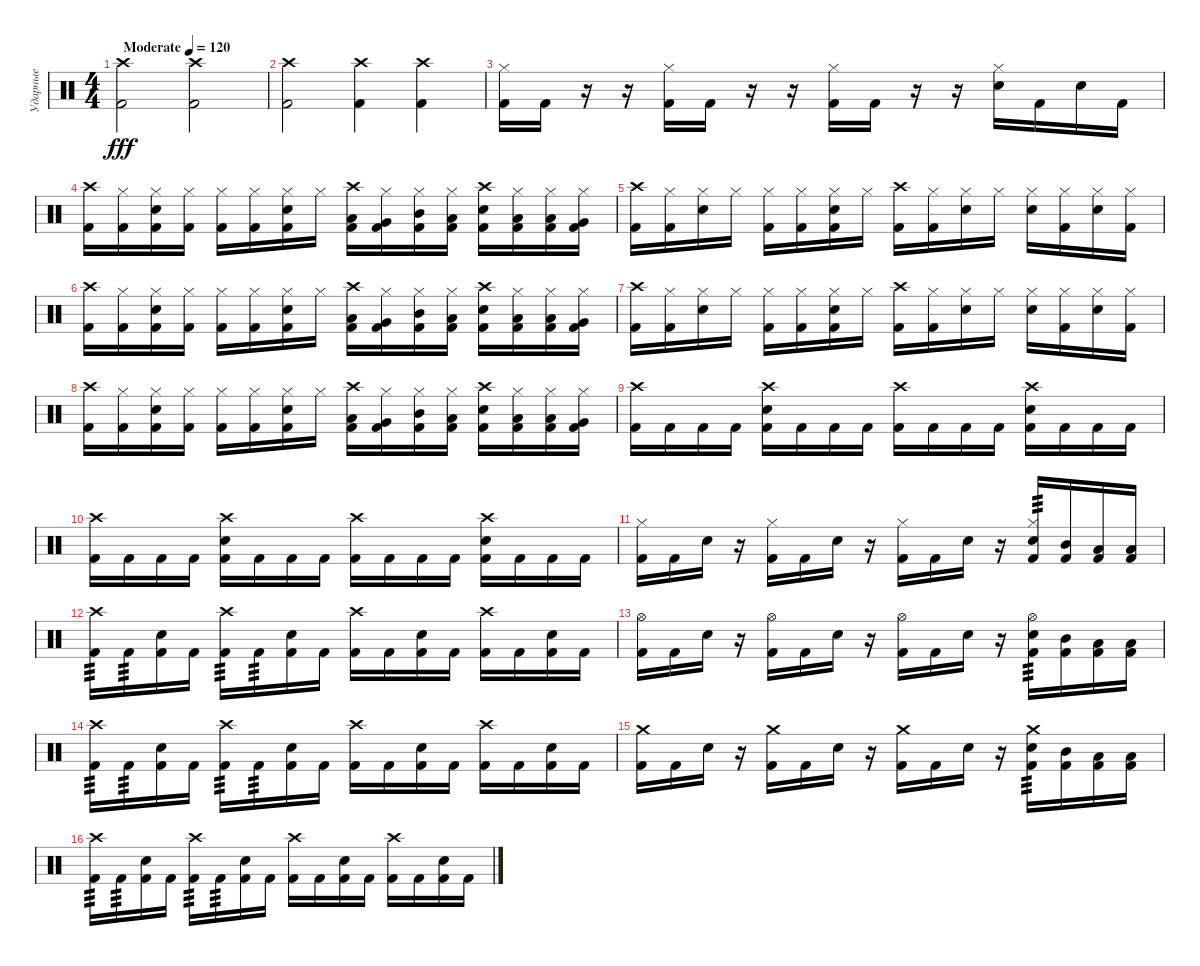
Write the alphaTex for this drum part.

\track ("Ударные" "Ударные") {instrument percussion}
\staff {score}
\articulation defaults
\ts (4 4)
\tempo (120 "Moderate")
\clef neutral
\ks c
("Crash high (hit)" "Kick (hit) 2").2{dy fff} ("Crash high (hit)" "Kick (hit) 2").2 |
("Crash high (hit)" "Kick (hit) 2").2 ("Crash high (hit)" "Kick (hit) 2").4 ("Crash high (hit)" "Kick (hit) 2").4 |
("Hi-Hat (closed)" "Kick (hit) 2").16 "Kick (hit) 2".16 r.16 r.16 ("Hi-Hat (closed)" "Kick (hit) 2").16 "Kick (hit) 2".16 r.16 r.16 ("Hi-Hat (closed)" "Kick (hit) 2").16 "Kick (hit) 2".16 r.16 r.16 ("Hi-Hat (closed)" "Snare (hit) 2").16 "Kick (hit) 2".16 "Snare (hit) 2".16 "Kick (hit) 2".16 |
("Crash high (hit)" "Kick (hit) 2").16 ("Hi-Hat (closed)" "Kick (hit) 2").16 ("Hi-Hat (closed)" "Snare (hit) 2" "Kick (hit) 2").16 ("Hi-Hat (closed)" "Kick (hit) 2").16 ("Hi-Hat (closed)" "Kick (hit) 2").16 ("Hi-Hat (closed)" "Kick (hit) 2").16 ("Hi-Hat (closed)" "Snare (hit) 2" "Kick (hit) 2").16 "Hi-Hat (closed)".16 ("Crash high (hit)" "Low Tom (hit)" "Kick (hit) 2").16 ("Hi-Hat (closed)" "Very Low Tom (hit)" "Kick (hit) 2").16 ("Hi-Hat (closed)" "Mid Tom (hit)" "Kick (hit) 2").16 ("Hi-Hat (closed)" "Low Floor Tom (hit)" "Kick (hit) 2").16 ("Crash high (hit)" "Snare (hit) 2" "Kick (hit) 2").16 ("Hi-Hat (closed)" "Low Tom (hit)" "Kick (hit) 2").16 ("Hi-Hat (closed)" "Low Floor Tom (hit)" "Kick (hit) 2").16 ("Hi-Hat (closed)" "Very Low Tom (hit)" "Kick (hit) 2").16 |
("Crash high (hit)" "Kick (hit) 2").16 ("Hi-Hat (closed)" "Kick (hit) 2").16 ("Hi-Hat (closed)" "Snare (hit) 2").16 "Hi-Hat (closed)".16 ("Hi-Hat (closed)" "Kick (hit) 2").16 ("Hi-Hat (closed)" "Kick (hit) 2").16 ("Hi-Hat (closed)" "Snare (hit) 2" "Kick (hit) 2").16 "Hi-Hat (closed)".16 ("Crash high (hit)" "Kick (hit) 2").16 ("Hi-Hat (closed)" "Kick (hit) 2").16 ("Hi-Hat (closed)" "Snare (hit) 2").16 "Hi-Hat (closed)".16 ("Hi-Hat (closed)" "Snare (hit) 2").16 ("Hi-Hat (closed)" "Kick (hit) 2").16 ("Hi-Hat (closed)" "Snare (hit) 2").16 ("Hi-Hat (closed)" "Kick (hit) 2").16 |
("Crash high (hit)" "Kick (hit) 2").16 ("Hi-Hat (closed)" "Kick (hit) 2").16 ("Hi-Hat (closed)" "Snare (hit) 2" "Kick (hit) 2").16 ("Hi-Hat (closed)" "Kick (hit) 2").16 ("Hi-Hat (closed)" "Kick (hit) 2").16 ("Hi-Hat (closed)" "Kick (hit) 2").16 ("Hi-Hat (closed)" "Snare (hit) 2" "Kick (hit) 2").16 "Hi-Hat (closed)".16 ("Crash high (hit)" "Low Tom (hit)" "Kick (hit) 2").16 ("Hi-Hat (closed)" "Very Low Tom (hit)" "Kick (hit) 2").16 ("Hi-Hat (closed)" "Mid Tom (hit)" "Kick (hit) 2").16 ("Hi-Hat (closed)" "Low Floor Tom (hit)" "Kick (hit) 2").16 ("Crash high (hit)" "Snare (hit) 2" "Kick (hit) 2").16 ("Hi-Hat (closed)" "Low Tom (hit)" "Kick (hit) 2").16 ("Hi-Hat (closed)" "Low Floor Tom (hit)" "Kick (hit) 2").16 ("Hi-Hat (closed)" "Very Low Tom (hit)" "Kick (hit) 2").16 |
("Crash high (hit)" "Kick (hit) 2").16 ("Hi-Hat (closed)" "Kick (hit) 2").16 ("Hi-Hat (closed)" "Snare (hit) 2").16 "Hi-Hat (closed)".16 ("Hi-Hat (closed)" "Kick (hit) 2").16 ("Hi-Hat (closed)" "Kick (hit) 2").16 ("Hi-Hat (closed)" "Snare (hit) 2" "Kick (hit) 2").16 "Hi-Hat (closed)".16 ("Crash high (hit)" "Kick (hit) 2").16 ("Hi-Hat (closed)" "Kick (hit) 2").16 ("Hi-Hat (closed)" "Snare (hit) 2").16 "Hi-Hat (closed)".16 ("Hi-Hat (closed)" "Snare (hit) 2").16 ("Hi-Hat (closed)" "Kick (hit) 2").16 ("Hi-Hat (closed)" "Snare (hit) 2").16 ("Hi-Hat (closed)" "Kick (hit) 2").16 |
("Crash high (hit)" "Kick (hit) 2").16 ("Hi-Hat (closed)" "Kick (hit) 2").16 ("Hi-Hat (closed)" "Snare (hit) 2" "Kick (hit) 2").16 ("Hi-Hat (closed)" "Kick (hit) 2").16 ("Hi-Hat (closed)" "Kick (hit) 2").16 ("Hi-Hat (closed)" "Kick (hit) 2").16 ("Hi-Hat (closed)" "Snare (hit) 2" "Kick (hit) 2").16 "Hi-Hat (closed)".16 ("Crash high (hit)" "Low Tom (hit)" "Kick (hit) 2").16 ("Hi-Hat (closed)" "Very Low Tom (hit)" "Kick (hit) 2").16 ("Hi-Hat (closed)" "Mid Tom (hit)" "Kick (hit) 2").16 ("Hi-Hat (closed)" "Low Floor Tom (hit)" "Kick (hit) 2").16 ("Crash high (hit)" "Snare (hit) 2" "Kick (hit) 2").16 ("Hi-Hat (closed)" "Low Tom (hit)" "Kick (hit) 2").16 ("Hi-Hat (closed)" "Low Floor Tom (hit)" "Kick (hit) 2").16 ("Hi-Hat (closed)" "Very Low Tom (hit)" "Kick (hit) 2").16 |
("Crash high (hit)" "Kick (hit) 2").16 "Kick (hit) 2".16 "Kick (hit) 2".16 "Kick (hit) 2".16 ("Crash high (hit)" "Snare (hit) 2" "Kick (hit) 2").16 "Kick (hit) 2".16 "Kick (hit) 2".16 "Kick (hit) 2".16 ("Crash high (hit)" "Kick (hit) 2").16 "Kick (hit) 2".16 "Kick (hit) 2".16 "Kick (hit) 2".16 ("Crash high (hit)" "Snare (hit) 2" "Kick (hit) 2").16 "Kick (hit) 2".16 "Kick (hit) 2".16 "Kick (hit) 2".16 |
("Crash high (hit)" "Kick (hit) 2").16 "Kick (hit) 2".16 "Kick (hit) 2".16 "Kick (hit) 2".16 ("Crash high (hit)" "Snare (hit) 2" "Kick (hit) 2").16 "Kick (hit) 2".16 "Kick (hit) 2".16 "Kick (hit) 2".16 ("Crash high (hit)" "Kick (hit) 2").16 "Kick (hit) 2".16 "Kick (hit) 2".16 "Kick (hit) 2".16 ("Crash high (hit)" "Snare (hit) 2" "Kick (hit) 2").16 "Kick (hit) 2".16 "Kick (hit) 2".16 "Kick (hit) 2".16 |
("Hi-Hat (closed)" "Kick (hit) 2").16 "Kick (hit) 2".16 "Snare (hit) 2".16 r.16 ("Hi-Hat (closed)" "Kick (hit) 2").16 "Kick (hit) 2".16 "Snare (hit) 2".16 r.16 ("Hi-Hat (closed)" "Kick (hit) 2").16 "Kick (hit) 2".16 "Snare (hit) 2".16 r.16 ("Hi-Hat (closed)" "Snare (hit) 2" "Kick (hit) 2").16{tp 3} ("Mid Tom (hit)" "Kick (hit) 2").16 ("Low Tom (hit)" "Kick (hit) 2").16 ("Low Floor Tom (hit)" "Kick (hit) 2").16 |
("Crash high (hit)" "Kick (hit) 2").16{tp 3} "Kick (hit) 2".16{tp 3} ("Snare (hit) 2" "Kick (hit) 2").16 "Kick (hit) 2".16 ("Crash high (hit)" "Kick (hit) 2").16{tp 3} "Kick (hit) 2".16{tp 3} ("Snare (hit) 2" "Kick (hit) 2").16 "Kick (hit) 2".16 ("Crash high (hit)" "Kick (hit) 2").16 "Kick (hit) 2".16 ("Snare (hit) 2" "Kick (hit) 2").16 "Kick (hit) 2".16 ("Crash high (hit)" "Kick (hit) 2").16 "Kick (hit) 2".16 ("Snare (hit) 2" "Kick (hit) 2").16 "Kick (hit) 2".16 |
("Hi-Hat (open)" "Kick (hit) 2").16 "Kick (hit) 2".16 "Snare (hit) 2".16 r.16 ("Hi-Hat (open)" "Kick (hit) 2").16 "Kick (hit) 2".16 "Snare (hit) 2".16 r.16 ("Hi-Hat (open)" "Kick (hit) 2").16 "Kick (hit) 2".16 "Snare (hit) 2".16 r.16 ("Hi-Hat (open)" "Snare (hit) 2" "Kick (hit) 2").16{tp 3} ("Mid Tom (hit)" "Kick (hit) 2").16 ("Low Tom (hit)" "Kick (hit) 2").16 ("Low Floor Tom (hit)" "Kick (hit) 2").16 |
("Crash high (hit)" "Kick (hit) 2").16{tp 3} "Kick (hit) 2".16{tp 3} ("Snare (hit) 2" "Kick (hit) 2").16 "Kick (hit) 2".16 ("Crash high (hit)" "Kick (hit) 2").16{tp 3} "Kick (hit) 2".16{tp 3} ("Snare (hit) 2" "Kick (hit) 2").16 "Kick (hit) 2".16 ("Crash high (hit)" "Kick (hit) 2").16 "Kick (hit) 2".16 ("Snare (hit) 2" "Kick (hit) 2").16 "Kick (hit) 2".16 ("Crash high (hit)" "Kick (hit) 2").16 "Kick (hit) 2".16 ("Snare (hit) 2" "Kick (hit) 2").16 "Kick (hit) 2".16 |
("Crash medium (hit)" "Kick (hit) 2").16 "Kick (hit) 2".16 "Snare (hit) 2".16 r.16 ("Crash medium (hit)" "Kick (hit) 2").16 "Kick (hit) 2".16 "Snare (hit) 2".16 r.16 ("Crash medium (hit)" "Kick (hit) 2").16 "Kick (hit) 2".16 "Snare (hit) 2".16 r.16 ("Crash medium (hit)" "Snare (hit) 2" "Kick (hit) 2").16{tp 3} ("Mid Tom (hit)" "Kick (hit) 2").16 ("Low Tom (hit)" "Kick (hit) 2").16 ("Low Floor Tom (hit)" "Kick (hit) 2").16 |
("Crash high (hit)" "Kick (hit) 2").16{tp 3} "Kick (hit) 2".16{tp 3} ("Snare (hit) 2" "Kick (hit) 2").16 "Kick (hit) 2".16 ("Crash high (hit)" "Kick (hit) 2").16{tp 3} "Kick (hit) 2".16{tp 3} ("Snare (hit) 2" "Kick (hit) 2").16 "Kick (hit) 2".16 ("Crash high (hit)" "Kick (hit) 2").16 "Kick (hit) 2".16 ("Snare (hit) 2" "Kick (hit) 2").16 "Kick (hit) 2".16 ("Crash high (hit)" "Kick (hit) 2").16 "Kick (hit) 2".16 ("Snare (hit) 2" "Kick (hit) 2").16 "Kick (hit) 2".16
